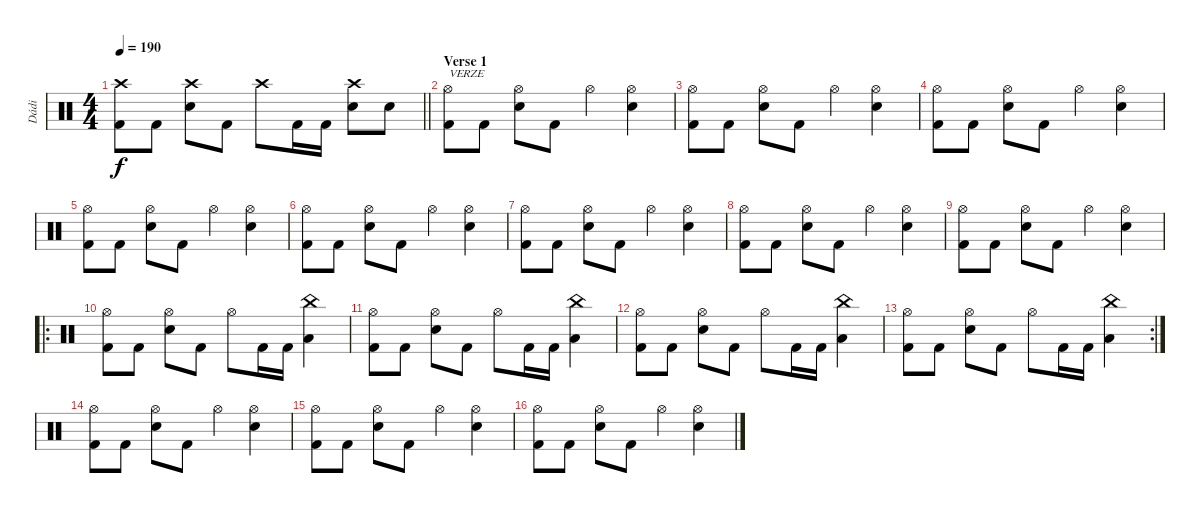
\track ("Dádi" "Dádi") {instrument percussion}
\staff {score}
\articulation defaults
\ts (4 4)
\tempo 190
\clef neutral
\barLineRight lightlight
\ks c
("Kick (hit) 2" "Crash high (hit)").8{dy f} "Kick (hit) 2".8 ("Electric Snare (hit)" "Crash high (hit)").8 "Kick (hit) 2".8 "Crash high (hit)".8 "Kick (hit) 2".16 "Kick (hit) 2".16 ("Electric Snare (hit)" "Crash high (hit)").8 "Electric Snare (hit)".8 |
\section ("" "Verse 1")
("Kick (hit) 2" "Hi-Hat (open)").8{txt "VERZE"} "Kick (hit) 2".8 ("Electric Snare (hit)" "Hi-Hat (open)").8 "Kick (hit) 2".8 "Hi-Hat (open)".4 ("Electric Snare (hit)" "Hi-Hat (open)").4 |
("Kick (hit) 2" "Hi-Hat (open)").8 "Kick (hit) 2".8 ("Electric Snare (hit)" "Hi-Hat (open)").8 "Kick (hit) 2".8 "Hi-Hat (open)".4 ("Electric Snare (hit)" "Hi-Hat (open)").4 |
("Kick (hit) 2" "Hi-Hat (open)").8 "Kick (hit) 2".8 ("Electric Snare (hit)" "Hi-Hat (open)").8 "Kick (hit) 2".8 "Hi-Hat (open)".4 ("Electric Snare (hit)" "Hi-Hat (open)").4 |
("Kick (hit) 2" "Hi-Hat (open)").8 "Kick (hit) 2".8 ("Electric Snare (hit)" "Hi-Hat (open)").8 "Kick (hit) 2".8 "Hi-Hat (open)".4 ("Electric Snare (hit)" "Hi-Hat (open)").4 |
("Kick (hit) 2" "Hi-Hat (open)").8 "Kick (hit) 2".8 ("Electric Snare (hit)" "Hi-Hat (open)").8 "Kick (hit) 2".8 "Hi-Hat (open)".4 ("Electric Snare (hit)" "Hi-Hat (open)").4 |
("Kick (hit) 2" "Hi-Hat (open)").8 "Kick (hit) 2".8 ("Electric Snare (hit)" "Hi-Hat (open)").8 "Kick (hit) 2".8 "Hi-Hat (open)".4 ("Electric Snare (hit)" "Hi-Hat (open)").4 |
("Kick (hit) 2" "Hi-Hat (open)").8 "Kick (hit) 2".8 ("Electric Snare (hit)" "Hi-Hat (open)").8 "Kick (hit) 2".8 "Hi-Hat (open)".4 ("Hi-Hat (open)" "Electric Snare (hit)").4 |
("Kick (hit) 2" "Hi-Hat (open)").8 "Kick (hit) 2".8 ("Electric Snare (hit)" "Hi-Hat (open)").8 "Kick (hit) 2".8 "Hi-Hat (open)".4 ("Hi-Hat (open)" "Electric Snare (hit)").4 |
\ro
("Kick (hit) 2" "Hi-Hat (open)").8 "Kick (hit) 2".8 ("Electric Snare (hit)" "Hi-Hat (open)").8 "Kick (hit) 2".8 "Hi-Hat (open)".8 "Kick (hit) 2".16 "Kick (hit) 2".16 ("China (hit)" "Low Floor Tom (hit)").4 |
("Kick (hit) 2" "Hi-Hat (open)").8 "Kick (hit) 2".8 ("Electric Snare (hit)" "Hi-Hat (open)").8 "Kick (hit) 2".8 "Hi-Hat (open)".8 "Kick (hit) 2".16 "Kick (hit) 2".16 ("China (hit)" "Low Floor Tom (hit)").4 |
("Kick (hit) 2" "Hi-Hat (open)").8 "Kick (hit) 2".8 ("Electric Snare (hit)" "Hi-Hat (open)").8 "Kick (hit) 2".8 "Hi-Hat (open)".8 "Kick (hit) 2".16 "Kick (hit) 2".16 ("China (hit)" "Low Floor Tom (hit)").4 |
\rc 2
("Kick (hit) 2" "Hi-Hat (open)").8 "Kick (hit) 2".8 ("Electric Snare (hit)" "Hi-Hat (open)").8 "Kick (hit) 2".8 "Hi-Hat (open)".8 "Kick (hit) 2".16 "Kick (hit) 2".16 ("China (hit)" "Low Floor Tom (hit)").4 |
("Kick (hit) 2" "Hi-Hat (open)").8 "Kick (hit) 2".8 ("Electric Snare (hit)" "Hi-Hat (open)").8 "Kick (hit) 2".8 "Hi-Hat (open)".4 ("Electric Snare (hit)" "Hi-Hat (open)").4 |
("Kick (hit) 2" "Hi-Hat (open)").8 "Kick (hit) 2".8 ("Hi-Hat (open)" "Electric Snare (hit)").8 "Kick (hit) 2".8 "Hi-Hat (open)".4 ("Hi-Hat (open)" "Electric Snare (hit)").4 |
("Kick (hit) 2" "Hi-Hat (open)").8 "Kick (hit) 2".8 ("Electric Snare (hit)" "Hi-Hat (open)").8 "Kick (hit) 2".8 "Hi-Hat (open)".4 ("Electric Snare (hit)" "Hi-Hat (open)").4
